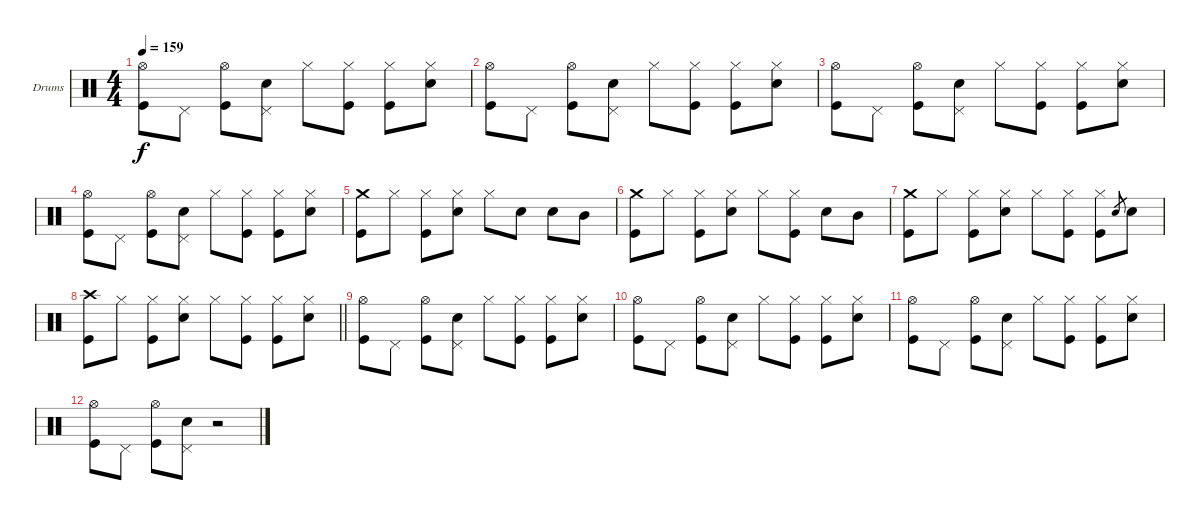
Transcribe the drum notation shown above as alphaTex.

\bracketExtendMode groupsimilarinstruments
\firstSystemTrackNameOrientation horizontal
\otherSystemsTrackNameOrientation horizontal
\track ("Fabrizio" "Drums") {instrument percussion}
\staff {score}
\articulation defaults
\ts (4 4)
\tempo 159
\clef neutral
\ks c
("Hi-Hat (open)" "Kick (hit)").8{dy f} "Pedal Hi-Hat (hit)".8 ("Hi-Hat (open)" "Kick (hit)").8 ("Pedal Hi-Hat (hit)" "Snare (hit) 2").8 "Hi-Hat (closed)".8 ("Kick (hit)" "Hi-Hat (closed)").8 ("Kick (hit)" "Hi-Hat (closed)").8 ("Snare (hit) 2" "Hi-Hat (closed)").8 |
("Hi-Hat (open)" "Kick (hit)").8 "Pedal Hi-Hat (hit)".8 ("Hi-Hat (open)" "Kick (hit)").8 ("Pedal Hi-Hat (hit)" "Snare (hit) 2").8 "Hi-Hat (closed)".8 ("Kick (hit)" "Hi-Hat (closed)").8 ("Kick (hit)" "Hi-Hat (closed)").8 ("Snare (hit) 2" "Hi-Hat (closed)").8 |
("Hi-Hat (open)" "Kick (hit)").8 "Pedal Hi-Hat (hit)".8 ("Hi-Hat (open)" "Kick (hit)").8 ("Pedal Hi-Hat (hit)" "Snare (hit) 2").8 "Hi-Hat (closed)".8 ("Kick (hit)" "Hi-Hat (closed)").8 ("Kick (hit)" "Hi-Hat (closed)").8 ("Snare (hit) 2" "Hi-Hat (closed)").8 |
("Hi-Hat (open)" "Kick (hit)").8 "Pedal Hi-Hat (hit)".8 ("Hi-Hat (open)" "Kick (hit)").8 ("Pedal Hi-Hat (hit)" "Snare (hit) 2").8 "Hi-Hat (closed)".8 ("Kick (hit)" "Hi-Hat (closed)").8 ("Kick (hit)" "Hi-Hat (closed)").8 ("Snare (hit) 2" "Hi-Hat (closed)").8 |
("Crash medium (hit)" "Kick (hit)").8 "Hi-Hat (closed)".8 ("Kick (hit)" "Hi-Hat (closed)").8 ("Snare (hit) 2" "Hi-Hat (closed)").8 "Hi-Hat (closed)".8 "Snare (hit) 2".8 "Snare (hit) 2".8 "Mid Tom (hit)".8 |
("Crash medium (hit)" "Kick (hit)").8 "Hi-Hat (closed)".8 ("Kick (hit)" "Hi-Hat (closed)").8 ("Snare (hit) 2" "Hi-Hat (closed)").8 "Hi-Hat (closed)".8 ("Hi-Hat (closed)" "Kick (hit)").8 "Snare (hit) 2".8 "Mid Tom (hit)".8 |
("Crash medium (hit)" "Kick (hit)").8 "Hi-Hat (closed)".8 ("Kick (hit)" "Hi-Hat (closed)").8 ("Snare (hit) 2" "Hi-Hat (closed)").8 "Hi-Hat (closed)".8 ("Hi-Hat (closed)" "Kick (hit)").8 ("Hi-Hat (closed)" "Kick (hit)").8 "Snare (hit) 2".8{gr} "Snare (hit) 2".8 |
\barLineRight lightlight
("Kick (hit)" "Crash high (hit)").8 "Hi-Hat (closed)".8 ("Kick (hit)" "Hi-Hat (closed)").8 ("Snare (hit) 2" "Hi-Hat (closed)").8 "Hi-Hat (closed)".8 ("Hi-Hat (closed)" "Kick (hit)").8 ("Hi-Hat (closed)" "Kick (hit)").8 ("Hi-Hat (closed)" "Snare (hit) 2").8 |
("Hi-Hat (open)" "Kick (hit)").8 "Pedal Hi-Hat (hit)".8 ("Hi-Hat (open)" "Kick (hit)").8 ("Pedal Hi-Hat (hit)" "Snare (hit) 2").8 "Hi-Hat (closed)".8 ("Kick (hit)" "Hi-Hat (closed)").8 ("Kick (hit)" "Hi-Hat (closed)").8 ("Snare (hit) 2" "Hi-Hat (closed)").8 |
("Hi-Hat (open)" "Kick (hit)").8 "Pedal Hi-Hat (hit)".8 ("Hi-Hat (open)" "Kick (hit)").8 ("Pedal Hi-Hat (hit)" "Snare (hit) 2").8 "Hi-Hat (closed)".8 ("Kick (hit)" "Hi-Hat (closed)").8 ("Kick (hit)" "Hi-Hat (closed)").8 ("Snare (hit) 2" "Hi-Hat (closed)").8 |
("Hi-Hat (open)" "Kick (hit)").8 "Pedal Hi-Hat (hit)".8 ("Hi-Hat (open)" "Kick (hit)").8 ("Pedal Hi-Hat (hit)" "Snare (hit) 2").8 "Hi-Hat (closed)".8 ("Kick (hit)" "Hi-Hat (closed)").8 ("Kick (hit)" "Hi-Hat (closed)").8 ("Snare (hit) 2" "Hi-Hat (closed)").8 |
("Hi-Hat (open)" "Kick (hit)").8 "Pedal Hi-Hat (hit)".8 ("Hi-Hat (open)" "Kick (hit)").8 ("Pedal Hi-Hat (hit)" "Snare (hit) 2").8 r.2
